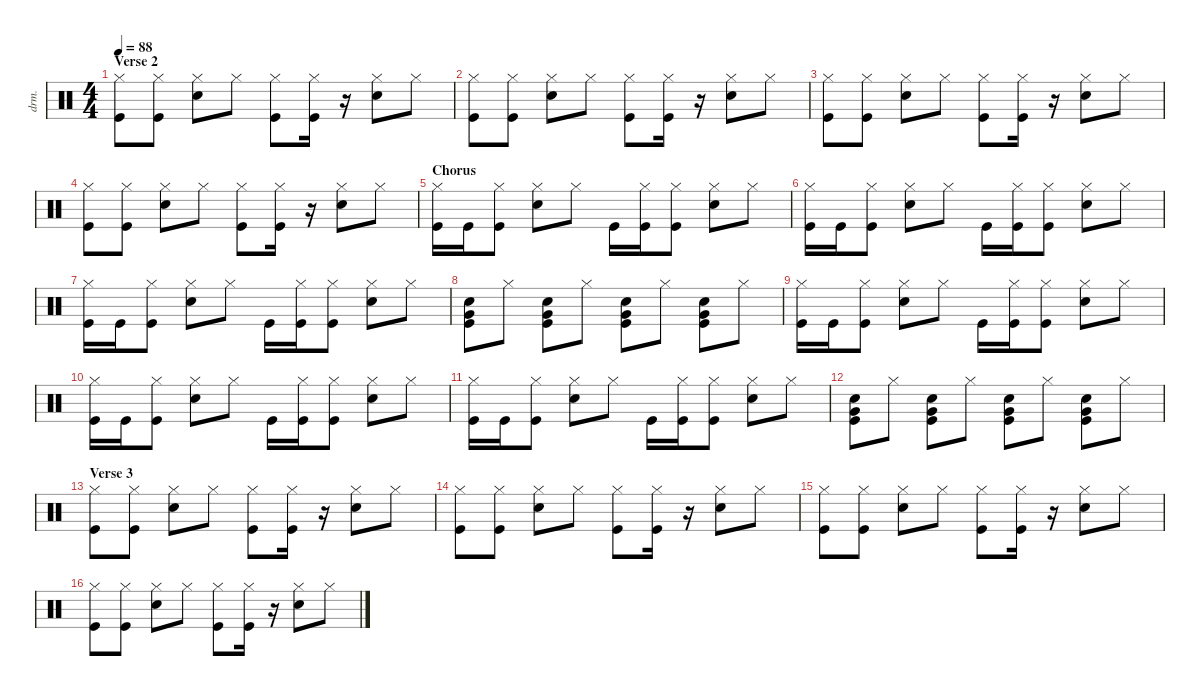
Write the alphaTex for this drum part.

\defaultSystemsLayout 4
\hideDynamics
\bracketExtendMode nobrackets
\otherSystemsTrackNameOrientation horizontal
\track ("Drums" "drm.") {instrument percussion}
\staff {score}
\articulation defaults
\ts (4 4)
\section ("" "Verse 2")
\tempo 88
\clef neutral
\ks c
("Hi-Hat (closed)" "Kick (hit)").8{dy f} ("Hi-Hat (closed)" "Kick (hit)").8 ("Hi-Hat (closed)" "Snare (hit) 2").8 "Hi-Hat (closed)".8 ("Hi-Hat (closed)" "Kick (hit)").8 ("Hi-Hat (closed)" "Kick (hit)").16 r.16 ("Hi-Hat (closed)" "Snare (hit) 2").8 "Hi-Hat (closed)".8 |
("Hi-Hat (closed)" "Kick (hit)").8 ("Hi-Hat (closed)" "Kick (hit)").8 ("Hi-Hat (closed)" "Snare (hit) 2").8 "Hi-Hat (closed)".8 ("Hi-Hat (closed)" "Kick (hit)").8 ("Hi-Hat (closed)" "Kick (hit)").16 r.16 ("Hi-Hat (closed)" "Snare (hit) 2").8 "Hi-Hat (closed)".8 |
("Hi-Hat (closed)" "Kick (hit)").8 ("Hi-Hat (closed)" "Kick (hit)").8 ("Hi-Hat (closed)" "Snare (hit) 2").8 "Hi-Hat (closed)".8 ("Hi-Hat (closed)" "Kick (hit)").8 ("Hi-Hat (closed)" "Kick (hit)").16 r.16 ("Hi-Hat (closed)" "Snare (hit) 2").8 "Hi-Hat (closed)".8 |
("Hi-Hat (closed)" "Kick (hit)").8 ("Hi-Hat (closed)" "Kick (hit)").8 ("Hi-Hat (closed)" "Snare (hit) 2").8 "Hi-Hat (closed)".8 ("Hi-Hat (closed)" "Kick (hit)").8 ("Hi-Hat (closed)" "Kick (hit)").16 r.16 ("Hi-Hat (closed)" "Snare (hit) 2").8 "Hi-Hat (closed)".8 |
\section ("" "Chorus")
("Hi-Hat (closed)" "Kick (hit)").16 "Kick (hit)".16 ("Hi-Hat (closed)" "Kick (hit)").8 ("Hi-Hat (closed)" "Snare (hit) 2").8 "Hi-Hat (closed)".8 "Kick (hit)".16 ("Hi-Hat (closed)" "Kick (hit)").16 ("Hi-Hat (closed)" "Kick (hit)").8 ("Hi-Hat (closed)" "Snare (hit) 2").8 "Hi-Hat (closed)".8 |
("Hi-Hat (closed)" "Kick (hit)").16 "Kick (hit)".16 ("Hi-Hat (closed)" "Kick (hit)").8 ("Hi-Hat (closed)" "Snare (hit) 2").8 "Hi-Hat (closed)".8 "Kick (hit)".16 ("Hi-Hat (closed)" "Kick (hit)").16 ("Hi-Hat (closed)" "Kick (hit)").8 ("Hi-Hat (closed)" "Snare (hit) 2").8 "Hi-Hat (closed)".8 |
("Hi-Hat (closed)" "Kick (hit)").16 "Kick (hit)".16 ("Hi-Hat (closed)" "Kick (hit)").8 ("Hi-Hat (closed)" "Snare (hit) 2").8 "Hi-Hat (closed)".8 "Kick (hit)".16 ("Hi-Hat (closed)" "Kick (hit)").16 ("Hi-Hat (closed)" "Kick (hit)").8 ("Hi-Hat (closed)" "Snare (hit) 2").8 "Hi-Hat (closed)".8 |
("Very Low Tom (hit)" "Snare (hit) 2" "Kick (hit)").8 "Hi-Hat (closed)".8 ("Snare (hit) 2" "Kick (hit)" "Very Low Tom (hit)").8 "Hi-Hat (closed)".8 ("Snare (hit) 2" "Kick (hit)" "Very Low Tom (hit)").8 "Hi-Hat (closed)".8 ("Snare (hit) 2" "Very Low Tom (hit)" "Kick (hit)").8 "Hi-Hat (closed)".8 |
("Hi-Hat (closed)" "Kick (hit)").16 "Kick (hit)".16 ("Hi-Hat (closed)" "Kick (hit)").8 ("Hi-Hat (closed)" "Snare (hit) 2").8 "Hi-Hat (closed)".8 "Kick (hit)".16 ("Hi-Hat (closed)" "Kick (hit)").16 ("Hi-Hat (closed)" "Kick (hit)").8 ("Hi-Hat (closed)" "Snare (hit) 2").8 "Hi-Hat (closed)".8 |
("Hi-Hat (closed)" "Kick (hit)").16 "Kick (hit)".16 ("Hi-Hat (closed)" "Kick (hit)").8 ("Hi-Hat (closed)" "Snare (hit) 2").8 "Hi-Hat (closed)".8 "Kick (hit)".16 ("Hi-Hat (closed)" "Kick (hit)").16 ("Hi-Hat (closed)" "Kick (hit)").8 ("Hi-Hat (closed)" "Snare (hit) 2").8 "Hi-Hat (closed)".8 |
("Hi-Hat (closed)" "Kick (hit)").16 "Kick (hit)".16 ("Hi-Hat (closed)" "Kick (hit)").8 ("Hi-Hat (closed)" "Snare (hit) 2").8 "Hi-Hat (closed)".8 "Kick (hit)".16 ("Hi-Hat (closed)" "Kick (hit)").16 ("Hi-Hat (closed)" "Kick (hit)").8 ("Hi-Hat (closed)" "Snare (hit) 2").8 "Hi-Hat (closed)".8 |
("Very Low Tom (hit)" "Snare (hit) 2" "Kick (hit)").8 "Hi-Hat (closed)".8 ("Snare (hit) 2" "Kick (hit)" "Very Low Tom (hit)").8 "Hi-Hat (closed)".8 ("Snare (hit) 2" "Kick (hit)" "Very Low Tom (hit)").8 "Hi-Hat (closed)".8 ("Snare (hit) 2" "Very Low Tom (hit)" "Kick (hit)").8 "Hi-Hat (closed)".8 |
\section ("" "Verse 3")
("Hi-Hat (closed)" "Kick (hit)").8 ("Hi-Hat (closed)" "Kick (hit)").8 ("Hi-Hat (closed)" "Snare (hit) 2").8 "Hi-Hat (closed)".8 ("Hi-Hat (closed)" "Kick (hit)").8 ("Hi-Hat (closed)" "Kick (hit)").16 r.16 ("Hi-Hat (closed)" "Snare (hit) 2").8 "Hi-Hat (closed)".8 |
("Hi-Hat (closed)" "Kick (hit)").8 ("Hi-Hat (closed)" "Kick (hit)").8 ("Hi-Hat (closed)" "Snare (hit) 2").8 "Hi-Hat (closed)".8 ("Hi-Hat (closed)" "Kick (hit)").8 ("Hi-Hat (closed)" "Kick (hit)").16 r.16 ("Hi-Hat (closed)" "Snare (hit) 2").8 "Hi-Hat (closed)".8 |
("Hi-Hat (closed)" "Kick (hit)").8 ("Hi-Hat (closed)" "Kick (hit)").8 ("Hi-Hat (closed)" "Snare (hit) 2").8 "Hi-Hat (closed)".8 ("Hi-Hat (closed)" "Kick (hit)").8 ("Hi-Hat (closed)" "Kick (hit)").16 r.16 ("Hi-Hat (closed)" "Snare (hit) 2").8 "Hi-Hat (closed)".8 |
("Hi-Hat (closed)" "Kick (hit)").8 ("Hi-Hat (closed)" "Kick (hit)").8 ("Hi-Hat (closed)" "Snare (hit) 2").8 "Hi-Hat (closed)".8 ("Hi-Hat (closed)" "Kick (hit)").8 ("Hi-Hat (closed)" "Kick (hit)").16 r.16 ("Hi-Hat (closed)" "Snare (hit) 2").8 "Hi-Hat (closed)".8
